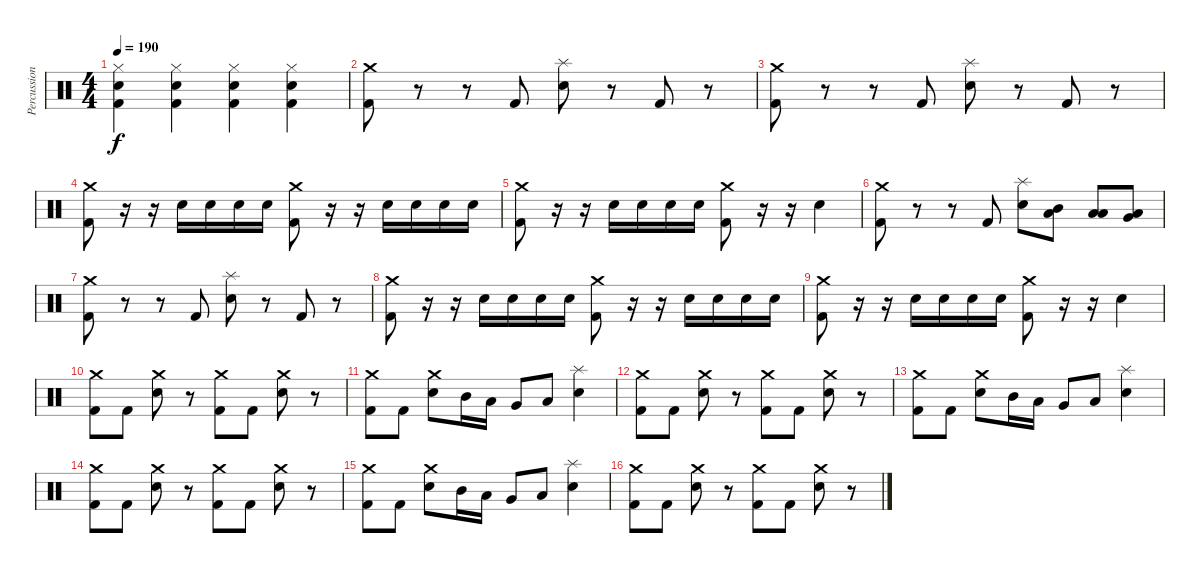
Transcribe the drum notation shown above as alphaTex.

\track ("Percussion" "Percussion") {instrument percussion}
\staff {score}
\articulation defaults
\ts (4 4)
\tempo 190
\clef neutral
\ks c
("Hi-Hat (closed)" "Electric Snare (hit)" "Kick (hit) 2").4{dy f} ("Hi-Hat (closed)" "Electric Snare (hit)" "Kick (hit) 2").4 ("Hi-Hat (closed)" "Electric Snare (hit)" "Kick (hit) 2").4 ("Hi-Hat (closed)" "Electric Snare (hit)" "Kick (hit) 2").4 |
("Crash medium (hit)" "Kick (hit) 2").8 r.8 r.8 "Kick (hit) 2".8 ("Splash (hit)" "Electric Snare (hit)").8 r.8 "Kick (hit) 2".8 r.8 |
("Crash medium (hit)" "Kick (hit) 2").8 r.8 r.8 "Kick (hit) 2".8 ("Splash (hit)" "Electric Snare (hit)").8 r.8 "Kick (hit) 2".8 r.8 |
("Crash medium (hit)" "Kick (hit) 2").8 r.16 r.16 "Electric Snare (hit)".16 "Electric Snare (hit)".16 "Electric Snare (hit)".16 "Electric Snare (hit)".16 ("Crash medium (hit)" "Kick (hit) 2").8 r.16 r.16 "Electric Snare (hit)".16 "Electric Snare (hit)".16 "Electric Snare (hit)".16 "Electric Snare (hit)".16 |
("Crash medium (hit)" "Kick (hit) 2").8 r.16 r.16 "Electric Snare (hit)".16 "Electric Snare (hit)".16 "Electric Snare (hit)".16 "Electric Snare (hit)".16 ("Crash medium (hit)" "Kick (hit) 2").8 r.16 r.16 "Electric Snare (hit)".4 |
("Crash medium (hit)" "Kick (hit) 2").8 r.8 r.8 "Kick (hit) 2".8 ("Splash (hit)" "Electric Snare (hit)").8 ("Mid Tom (hit)" "Low Floor Tom (hit)").8 ("Low Tom (hit)" "Low Floor Tom (hit)").8 ("Very Low Tom (hit)" "Low Floor Tom (hit)").8 |
("Crash medium (hit)" "Kick (hit) 2").8 r.8 r.8 "Kick (hit) 2".8 ("Splash (hit)" "Electric Snare (hit)").8 r.8 "Kick (hit) 2".8 r.8 |
("Crash medium (hit)" "Kick (hit) 2").8 r.16 r.16 "Electric Snare (hit)".16 "Electric Snare (hit)".16 "Electric Snare (hit)".16 "Electric Snare (hit)".16 ("Crash medium (hit)" "Kick (hit) 2").8 r.16 r.16 "Electric Snare (hit)".16 "Electric Snare (hit)".16 "Electric Snare (hit)".16 "Electric Snare (hit)".16 |
("Crash medium (hit)" "Kick (hit) 2").8 r.16 r.16 "Electric Snare (hit)".16 "Electric Snare (hit)".16 "Electric Snare (hit)".16 "Electric Snare (hit)".16 ("Crash medium (hit)" "Kick (hit) 2").8 r.16 r.16 "Electric Snare (hit)".4 |
("Crash medium (hit)" "Kick (hit) 2").8 "Kick (hit) 2".8 ("Crash medium (hit)" "Electric Snare (hit)").8 r.8 ("Crash medium (hit)" "Kick (hit) 2").8 "Kick (hit) 2".8 ("Crash medium (hit)" "Electric Snare (hit)").8 r.8 |
("Crash medium (hit)" "Kick (hit) 2").8 "Kick (hit) 2".8 ("Crash medium (hit)" "Electric Snare (hit)").8 "Mid Tom (hit)".16 "Low Tom (hit)".16 "Very Low Tom (hit)".8 "Low Floor Tom (hit)".8 ("Splash (hit)" "Electric Snare (hit)").4 |
("Crash medium (hit)" "Kick (hit) 2").8 "Kick (hit) 2".8 ("Crash medium (hit)" "Electric Snare (hit)").8 r.8 ("Crash medium (hit)" "Kick (hit) 2").8 "Kick (hit) 2".8 ("Crash medium (hit)" "Electric Snare (hit)").8 r.8 |
("Crash medium (hit)" "Kick (hit) 2").8 "Kick (hit) 2".8 ("Crash medium (hit)" "Electric Snare (hit)").8 "Mid Tom (hit)".16 "Low Tom (hit)".16 "Very Low Tom (hit)".8 "Low Floor Tom (hit)".8 ("Splash (hit)" "Electric Snare (hit)").4 |
("Crash medium (hit)" "Kick (hit) 2").8 "Kick (hit) 2".8 ("Crash medium (hit)" "Electric Snare (hit)").8 r.8 ("Crash medium (hit)" "Kick (hit) 2").8 "Kick (hit) 2".8 ("Crash medium (hit)" "Electric Snare (hit)").8 r.8 |
("Crash medium (hit)" "Kick (hit) 2").8 "Kick (hit) 2".8 ("Crash medium (hit)" "Electric Snare (hit)").8 "Mid Tom (hit)".16 "Low Tom (hit)".16 "Very Low Tom (hit)".8 "Low Floor Tom (hit)".8 ("Splash (hit)" "Electric Snare (hit)").4 |
("Crash medium (hit)" "Kick (hit) 2").8 "Kick (hit) 2".8 ("Crash medium (hit)" "Electric Snare (hit)").8 r.8 ("Crash medium (hit)" "Kick (hit) 2").8 "Kick (hit) 2".8 ("Crash medium (hit)" "Electric Snare (hit)").8 r.8
